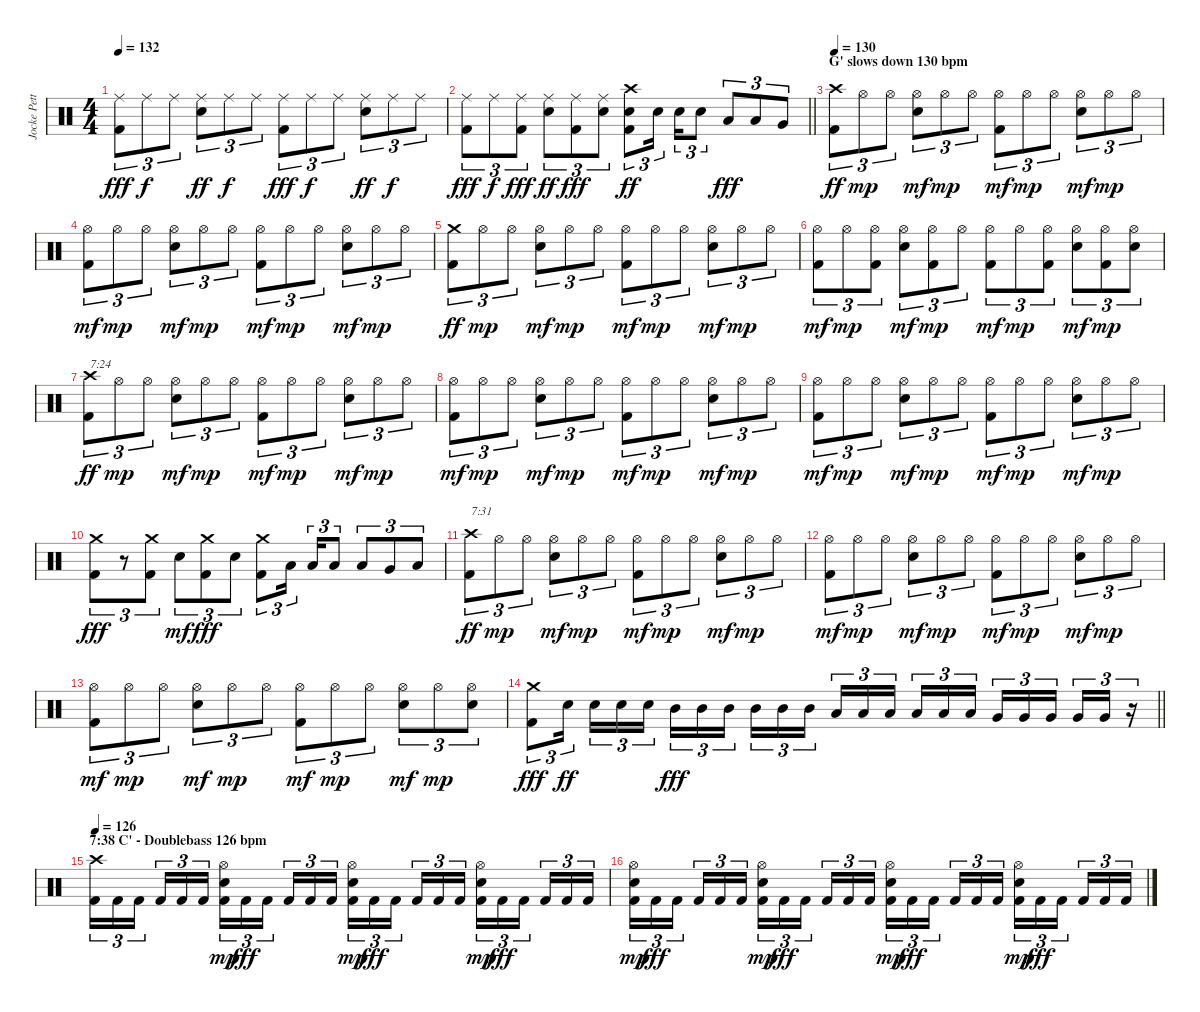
\track ("Jocke Pettersson" "Jocke Pett") {instrument percussion}
\staff {score}
\articulation defaults
\ts (4 4)
\tempo 132
\clef neutral
\ks c
("Kick (hit) 2" "Ride (middle)").8{tu (3 2) dy fff} "Ride (middle)".8{tu (3 2) dy f} "Ride (middle)".8{tu (3 2)} ("Electric Snare (hit)" "Ride (middle)").8{tu (3 2) dy ff} "Ride (middle)".8{tu (3 2) dy f} "Ride (middle)".8{tu (3 2)} ("Kick (hit) 2" "Ride (middle)").8{tu (3 2) dy fff} "Ride (middle)".8{tu (3 2) dy f} "Ride (middle)".8{tu (3 2)} ("Electric Snare (hit)" "Ride (middle)").8{tu (3 2) dy ff} "Ride (middle)".8{tu (3 2) dy f} "Ride (middle)".8{tu (3 2)} |
\barLineRight lightlight
("Kick (hit) 2" "Ride (middle)").8{tu (3 2) dy fff} "Ride (middle)".8{tu (3 2) dy f} ("Kick (hit) 2" "Ride (middle)").8{tu (3 2) dy fff} ("Electric Snare (hit)" "Ride (middle)").8{tu (3 2) dy ff} ("Kick (hit) 2" "Ride (middle)").8{tu (3 2) dy fff} ("Electric Snare (hit)" "Ride (middle)").8{tu (3 2)} ("Kick (hit) 2" "Electric Snare (hit)" "Crash high (hit)").8{tu (3 2) dy ff} "Electric Snare (hit)".16{tu (3 2) beam splitsecondary} "Electric Snare (hit)".16{tu (3 2)} "Electric Snare (hit)".8{tu (3 2)} "Low Tom (hit)".8{tu (3 2) dy fff} "Low Tom (hit)".8{tu (3 2)} "Very Low Tom (hit)".8{tu (3 2)} |
\section ("" "G' slows down 130 bpm")
\tempo 130
("Kick (hit) 2" "Crash high (hit)").8{tu (3 2) dy ff} "Hi-Hat (open)".8{tu (3 2) dy mp} "Hi-Hat (open)".8{tu (3 2)} ("Electric Snare (hit)" "Hi-Hat (open)").8{tu (3 2) dy mf} "Hi-Hat (open)".8{tu (3 2) dy mp} "Hi-Hat (open)".8{tu (3 2)} ("Kick (hit) 2" "Hi-Hat (open)").8{tu (3 2) dy mf} "Hi-Hat (open)".8{tu (3 2) dy mp} "Hi-Hat (open)".8{tu (3 2)} ("Electric Snare (hit)" "Hi-Hat (open)").8{tu (3 2) dy mf} "Hi-Hat (open)".8{tu (3 2) dy mp} "Hi-Hat (open)".8{tu (3 2)} |
("Kick (hit) 2" "Hi-Hat (open)").8{tu (3 2) dy mf} "Hi-Hat (open)".8{tu (3 2) dy mp} "Hi-Hat (open)".8{tu (3 2)} ("Electric Snare (hit)" "Hi-Hat (open)").8{tu (3 2) dy mf} "Hi-Hat (open)".8{tu (3 2) dy mp} "Hi-Hat (open)".8{tu (3 2)} ("Kick (hit) 2" "Hi-Hat (open)").8{tu (3 2) dy mf} "Hi-Hat (open)".8{tu (3 2) dy mp} "Hi-Hat (open)".8{tu (3 2)} ("Electric Snare (hit)" "Hi-Hat (open)").8{tu (3 2) dy mf} "Hi-Hat (open)".8{tu (3 2) dy mp} "Hi-Hat (open)".8{tu (3 2)} |
("Kick (hit) 2" "Crash medium (hit)").8{tu (3 2) dy ff} "Hi-Hat (open)".8{tu (3 2) dy mp} "Hi-Hat (open)".8{tu (3 2)} ("Electric Snare (hit)" "Hi-Hat (open)").8{tu (3 2) dy mf} "Hi-Hat (open)".8{tu (3 2) dy mp} "Hi-Hat (open)".8{tu (3 2)} ("Kick (hit) 2" "Hi-Hat (open)").8{tu (3 2) dy mf} "Hi-Hat (open)".8{tu (3 2) dy mp} "Hi-Hat (open)".8{tu (3 2)} ("Electric Snare (hit)" "Hi-Hat (open)").8{tu (3 2) dy mf} "Hi-Hat (open)".8{tu (3 2) dy mp} "Hi-Hat (open)".8{tu (3 2)} |
("Kick (hit) 2" "Hi-Hat (open)").8{tu (3 2) dy mf} "Hi-Hat (open)".8{tu (3 2) dy mp} ("Kick (hit) 2" "Hi-Hat (open)").8{tu (3 2)} ("Electric Snare (hit)" "Hi-Hat (open)").8{tu (3 2) dy mf} ("Kick (hit) 2" "Hi-Hat (open)").8{tu (3 2) dy mp} "Hi-Hat (open)".8{tu (3 2)} ("Kick (hit) 2" "Hi-Hat (open)").8{tu (3 2) dy mf} "Hi-Hat (open)".8{tu (3 2) dy mp} ("Kick (hit) 2" "Hi-Hat (open)").8{tu (3 2)} ("Electric Snare (hit)" "Hi-Hat (open)").8{tu (3 2) dy mf} ("Kick (hit) 2" "Hi-Hat (open)").8{tu (3 2) dy mp} ("Electric Snare (hit)" "Hi-Hat (open)").8{tu (3 2)} |
("Kick (hit) 2" "Crash high (hit)").8{tu (3 2) txt "7:24" dy ff} "Hi-Hat (open)".8{tu (3 2) dy mp} "Hi-Hat (open)".8{tu (3 2)} ("Electric Snare (hit)" "Hi-Hat (open)").8{tu (3 2) dy mf} "Hi-Hat (open)".8{tu (3 2) dy mp} "Hi-Hat (open)".8{tu (3 2)} ("Kick (hit) 2" "Hi-Hat (open)").8{tu (3 2) dy mf} "Hi-Hat (open)".8{tu (3 2) dy mp} "Hi-Hat (open)".8{tu (3 2)} ("Electric Snare (hit)" "Hi-Hat (open)").8{tu (3 2) dy mf} "Hi-Hat (open)".8{tu (3 2) dy mp} "Hi-Hat (open)".8{tu (3 2)} |
("Kick (hit) 2" "Hi-Hat (open)").8{tu (3 2) dy mf} "Hi-Hat (open)".8{tu (3 2) dy mp} "Hi-Hat (open)".8{tu (3 2)} ("Electric Snare (hit)" "Hi-Hat (open)").8{tu (3 2) dy mf} "Hi-Hat (open)".8{tu (3 2) dy mp} "Hi-Hat (open)".8{tu (3 2)} ("Kick (hit) 2" "Hi-Hat (open)").8{tu (3 2) dy mf} "Hi-Hat (open)".8{tu (3 2) dy mp} "Hi-Hat (open)".8{tu (3 2)} ("Electric Snare (hit)" "Hi-Hat (open)").8{tu (3 2) dy mf} "Hi-Hat (open)".8{tu (3 2) dy mp} "Hi-Hat (open)".8{tu (3 2)} |
("Kick (hit) 2" "Hi-Hat (open)").8{tu (3 2) dy mf} "Hi-Hat (open)".8{tu (3 2) dy mp} "Hi-Hat (open)".8{tu (3 2)} ("Electric Snare (hit)" "Hi-Hat (open)").8{tu (3 2) dy mf} "Hi-Hat (open)".8{tu (3 2) dy mp} "Hi-Hat (open)".8{tu (3 2)} ("Kick (hit) 2" "Hi-Hat (open)").8{tu (3 2) dy mf} "Hi-Hat (open)".8{tu (3 2) dy mp} "Hi-Hat (open)".8{tu (3 2)} ("Electric Snare (hit)" "Hi-Hat (open)").8{tu (3 2) dy mf} "Hi-Hat (open)".8{tu (3 2) dy mp} "Hi-Hat (open)".8{tu (3 2)} |
("Kick (hit) 2" "Crash medium (hit)").8{tu (3 2) dy fff} r.8{tu (3 2)} ("Kick (hit) 2" "Crash medium (hit)").8{tu (3 2)} "Electric Snare (hit)".8{tu (3 2) dy mf} ("Kick (hit) 2" "Crash medium (hit)").8{tu (3 2) dy fff} "Electric Snare (hit)".8{tu (3 2)} ("Kick (hit) 2" "Crash medium (hit)").8{tu (3 2)} "Low Tom (hit)".16{tu (3 2) beam splitsecondary} "Low Tom (hit)".16{tu (3 2)} "Low Tom (hit)".8{tu (3 2)} "Low Tom (hit)".8{tu (3 2)} "Very Low Tom (hit)".8{tu (3 2)} "Low Floor Tom (hit)".8{tu (3 2)} |
("Kick (hit) 2" "Crash high (hit)").8{tu (3 2) txt "7:31" dy ff} "Hi-Hat (open)".8{tu (3 2) dy mp} "Hi-Hat (open)".8{tu (3 2)} ("Electric Snare (hit)" "Hi-Hat (open)").8{tu (3 2) dy mf} "Hi-Hat (open)".8{tu (3 2) dy mp} "Hi-Hat (open)".8{tu (3 2)} ("Kick (hit) 2" "Hi-Hat (open)").8{tu (3 2) dy mf} "Hi-Hat (open)".8{tu (3 2) dy mp} "Hi-Hat (open)".8{tu (3 2)} ("Electric Snare (hit)" "Hi-Hat (open)").8{tu (3 2) dy mf} "Hi-Hat (open)".8{tu (3 2) dy mp} "Hi-Hat (open)".8{tu (3 2)} |
("Kick (hit) 2" "Hi-Hat (open)").8{tu (3 2) dy mf} "Hi-Hat (open)".8{tu (3 2) dy mp} "Hi-Hat (open)".8{tu (3 2)} ("Electric Snare (hit)" "Hi-Hat (open)").8{tu (3 2) dy mf} "Hi-Hat (open)".8{tu (3 2) dy mp} "Hi-Hat (open)".8{tu (3 2)} ("Kick (hit) 2" "Hi-Hat (open)").8{tu (3 2) dy mf} "Hi-Hat (open)".8{tu (3 2) dy mp} "Hi-Hat (open)".8{tu (3 2)} ("Electric Snare (hit)" "Hi-Hat (open)").8{tu (3 2) dy mf} "Hi-Hat (open)".8{tu (3 2) dy mp} "Hi-Hat (open)".8{tu (3 2)} |
("Kick (hit) 2" "Hi-Hat (open)").8{tu (3 2) dy mf} "Hi-Hat (open)".8{tu (3 2) dy mp} "Hi-Hat (open)".8{tu (3 2)} ("Electric Snare (hit)" "Hi-Hat (open)").8{tu (3 2) dy mf} "Hi-Hat (open)".8{tu (3 2) dy mp} "Hi-Hat (open)".8{tu (3 2)} ("Kick (hit) 2" "Hi-Hat (open)").8{tu (3 2) dy mf} "Hi-Hat (open)".8{tu (3 2) dy mp} "Hi-Hat (open)".8{tu (3 2)} ("Electric Snare (hit)" "Hi-Hat (open)").8{tu (3 2) dy mf} "Hi-Hat (open)".8{tu (3 2) dy mp} ("Electric Snare (hit)" "Hi-Hat (open)").8{tu (3 2)} |
\barLineRight lightlight
("Kick (hit) 2" "Crash medium (hit)").8{tu (3 2) dy fff} "Electric Snare (hit)".16{tu (3 2) dy ff beam splitsecondary} "Electric Snare (hit)".16{tu (3 2)} "Electric Snare (hit)".16{tu (3 2)} "Electric Snare (hit)".16{tu (3 2)} "Mid Tom (hit)".16{tu (3 2) dy fff} "Mid Tom (hit)".16{tu (3 2)} "Mid Tom (hit)".16{tu (3 2) beam splitsecondary} "Mid Tom (hit)".16{tu (3 2)} "Mid Tom (hit)".16{tu (3 2)} "Mid Tom (hit)".16{tu (3 2)} "Low Tom (hit)".16{tu (3 2)} "Low Tom (hit)".16{tu (3 2)} "Low Tom (hit)".16{tu (3 2) beam splitsecondary} "Low Tom (hit)".16{tu (3 2)} "Low Tom (hit)".16{tu (3 2)} "Low Tom (hit)".16{tu (3 2)} "Very Low Tom (hit)".16{tu (3 2)} "Very Low Tom (hit)".16{tu (3 2)} "Very Low Tom (hit)".16{tu (3 2) beam splitsecondary} "Very Low Tom (hit)".16{tu (3 2)} "Very Low Tom (hit)".16{tu (3 2)} r.16{tu (3 2)} |
\section ("" "7:38 C' - Doublebass 126 bpm")
\tempo 126
("Kick (hit) 2" "Crash high (hit)").16{tu (3 2)} "Kick (hit) 2".16{tu (3 2)} "Kick (hit) 2".16{tu (3 2) beam splitsecondary} "Kick (hit) 2".16{tu (3 2)} "Kick (hit) 2".16{tu (3 2)} "Kick (hit) 2".16{tu (3 2)} ("Kick (hit) 2" "Electric Snare (hit)" "Hi-Hat (open)").16{tu (3 2) dy mp} "Kick (hit) 2".16{tu (3 2) dy fff} "Kick (hit) 2".16{tu (3 2) beam splitsecondary} "Kick (hit) 2".16{tu (3 2)} "Kick (hit) 2".16{tu (3 2)} "Kick (hit) 2".16{tu (3 2)} ("Kick (hit) 2" "Electric Snare (hit)" "Hi-Hat (open)").16{tu (3 2) dy mp} "Kick (hit) 2".16{tu (3 2) dy fff} "Kick (hit) 2".16{tu (3 2) beam splitsecondary} "Kick (hit) 2".16{tu (3 2)} "Kick (hit) 2".16{tu (3 2)} "Kick (hit) 2".16{tu (3 2)} ("Kick (hit) 2" "Electric Snare (hit)" "Hi-Hat (open)").16{tu (3 2) dy mp} "Kick (hit) 2".16{tu (3 2) dy fff} "Kick (hit) 2".16{tu (3 2) beam splitsecondary} "Kick (hit) 2".16{tu (3 2)} "Kick (hit) 2".16{tu (3 2)} "Kick (hit) 2".16{tu (3 2)} |
("Kick (hit) 2" "Electric Snare (hit)" "Hi-Hat (open)").16{tu (3 2) dy mp} "Kick (hit) 2".16{tu (3 2) dy fff} "Kick (hit) 2".16{tu (3 2) beam splitsecondary} "Kick (hit) 2".16{tu (3 2)} "Kick (hit) 2".16{tu (3 2)} "Kick (hit) 2".16{tu (3 2)} ("Kick (hit) 2" "Electric Snare (hit)" "Hi-Hat (open)").16{tu (3 2) dy mp} "Kick (hit) 2".16{tu (3 2) dy fff} "Kick (hit) 2".16{tu (3 2) beam splitsecondary} "Kick (hit) 2".16{tu (3 2)} "Kick (hit) 2".16{tu (3 2)} "Kick (hit) 2".16{tu (3 2)} ("Kick (hit) 2" "Electric Snare (hit)" "Hi-Hat (open)").16{tu (3 2) dy mp} "Kick (hit) 2".16{tu (3 2) dy fff} "Kick (hit) 2".16{tu (3 2) beam splitsecondary} "Kick (hit) 2".16{tu (3 2)} "Kick (hit) 2".16{tu (3 2)} "Kick (hit) 2".16{tu (3 2)} ("Kick (hit) 2" "Electric Snare (hit)" "Hi-Hat (open)").16{tu (3 2) dy mp} "Kick (hit) 2".16{tu (3 2) dy fff} "Kick (hit) 2".16{tu (3 2) beam splitsecondary} "Kick (hit) 2".16{tu (3 2)} "Kick (hit) 2".16{tu (3 2)} "Kick (hit) 2".16{tu (3 2)}
